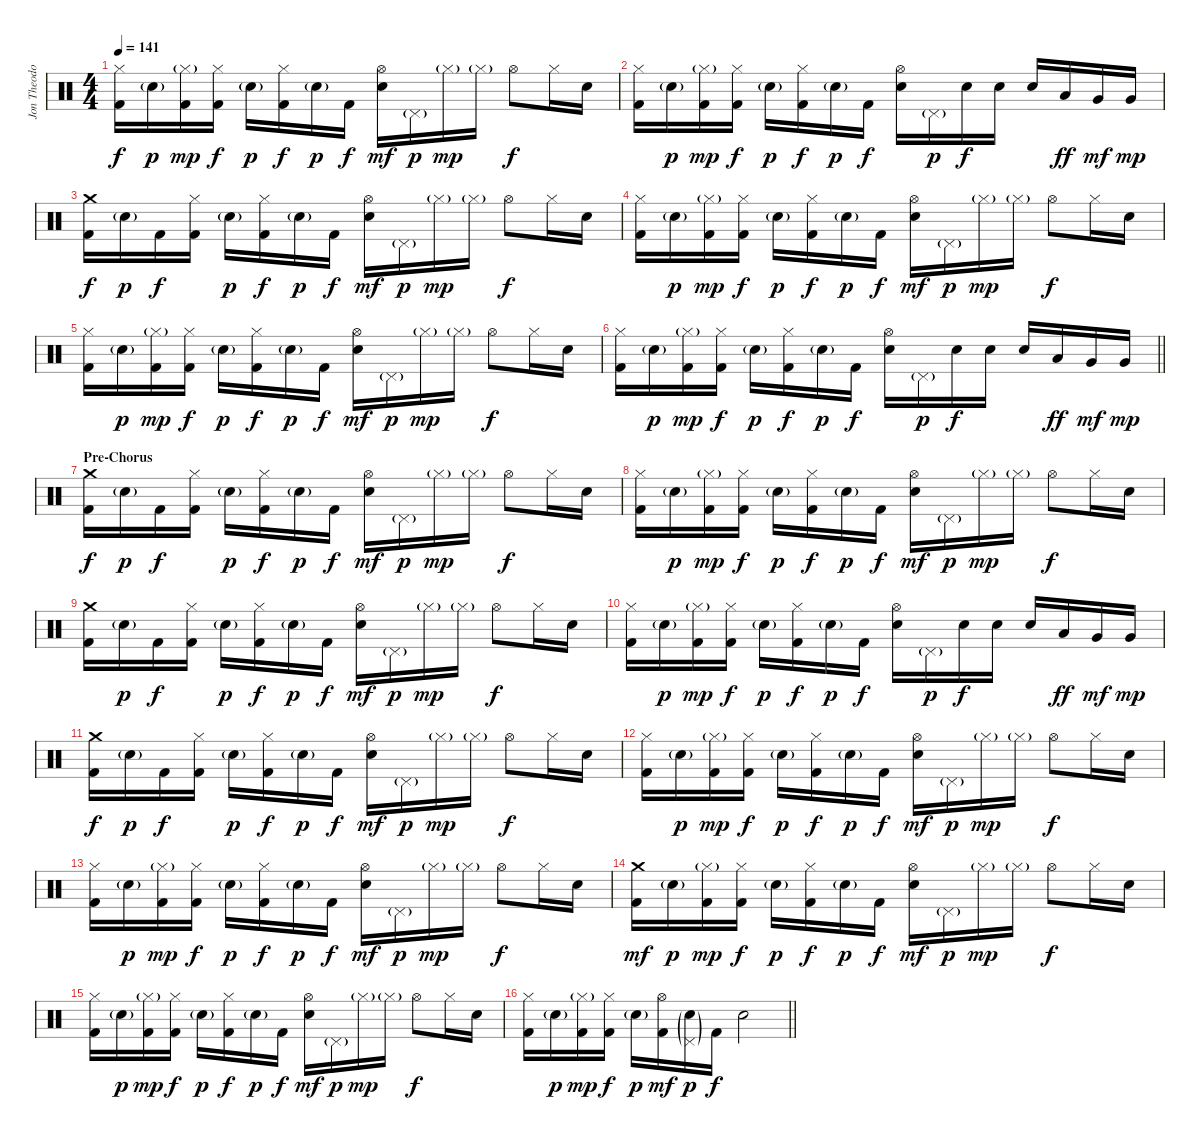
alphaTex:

\track ("Jon Theodore - Drums" "Jon Theodo") {instrument percussion}
\staff {score}
\articulation defaults
\ts (4 4)
\tempo 141
\clef neutral
\ks c
("Hi-Hat (closed)" "Kick (hit) 2").16{dy f} "Electric Snare (hit)"{g}.16{dy p} ("Hi-Hat (closed)"{g} "Kick (hit) 2").16{dy mp} ("Hi-Hat (closed)" "Kick (hit) 2").16{dy f} "Electric Snare (hit)"{g}.16{dy p} ("Hi-Hat (closed)" "Kick (hit) 2").16{dy f} "Electric Snare (hit)"{g}.16{dy p} "Kick (hit) 2".16{dy f} ("Hi-Hat (open)" "Electric Snare (hit)").16{dy mf} "Pedal Hi-Hat (hit)"{g}.16{dy p} "Hi-Hat (closed)"{g}.16{dy mp} "Hi-Hat (closed)"{g}.16 "Hi-Hat (open)".8{dy f} "Hi-Hat (closed)".16 "Electric Snare (hit)".16 |
("Hi-Hat (closed)" "Kick (hit) 2").16 "Electric Snare (hit)"{g}.16{dy p} ("Hi-Hat (closed)"{g} "Kick (hit) 2").16{dy mp} ("Hi-Hat (closed)" "Kick (hit) 2").16{dy f} "Electric Snare (hit)"{g}.16{dy p} ("Hi-Hat (closed)" "Kick (hit) 2").16{dy f} "Electric Snare (hit)"{g}.16{dy p} "Kick (hit) 2".16{dy f} ("Hi-Hat (open)" "Electric Snare (hit)").16 "Pedal Hi-Hat (hit)"{g}.16{dy p} "Electric Snare (hit)".16{dy f} "Electric Snare (hit)".16 "Electric Snare (hit)".16 "Low Tom (hit)".16{dy ff} "Very Low Tom (hit)".16{dy mf} "Very Low Tom (hit)".16{dy mp} |
("Crash medium (hit)" "Kick (hit) 2").16{dy f} "Electric Snare (hit)"{g}.16{dy p} "Kick (hit) 2".16{dy f} ("Hi-Hat (closed)" "Kick (hit) 2").16 "Electric Snare (hit)"{g}.16{dy p} ("Hi-Hat (closed)" "Kick (hit) 2").16{dy f} "Electric Snare (hit)"{g}.16{dy p} "Kick (hit) 2".16{dy f} ("Hi-Hat (open)" "Electric Snare (hit)").16{dy mf} "Pedal Hi-Hat (hit)"{g}.16{dy p} "Hi-Hat (closed)"{g}.16{dy mp} "Hi-Hat (closed)"{g}.16 "Hi-Hat (open)".8{dy f} "Hi-Hat (closed)".16 "Electric Snare (hit)".16 |
("Hi-Hat (closed)" "Kick (hit) 2").16 "Electric Snare (hit)"{g}.16{dy p} ("Hi-Hat (closed)"{g} "Kick (hit) 2").16{dy mp} ("Hi-Hat (closed)" "Kick (hit) 2").16{dy f} "Electric Snare (hit)"{g}.16{dy p} ("Hi-Hat (closed)" "Kick (hit) 2").16{dy f} "Electric Snare (hit)"{g}.16{dy p} "Kick (hit) 2".16{dy f} ("Hi-Hat (open)" "Electric Snare (hit)").16{dy mf} "Pedal Hi-Hat (hit)"{g}.16{dy p} "Hi-Hat (closed)"{g}.16{dy mp} "Hi-Hat (closed)"{g}.16 "Hi-Hat (open)".8{dy f} "Hi-Hat (closed)".16 "Electric Snare (hit)".16 |
("Hi-Hat (closed)" "Kick (hit) 2").16 "Electric Snare (hit)"{g}.16{dy p} ("Hi-Hat (closed)"{g} "Kick (hit) 2").16{dy mp} ("Hi-Hat (closed)" "Kick (hit) 2").16{dy f} "Electric Snare (hit)"{g}.16{dy p} ("Hi-Hat (closed)" "Kick (hit) 2").16{dy f} "Electric Snare (hit)"{g}.16{dy p} "Kick (hit) 2".16{dy f} ("Hi-Hat (open)" "Electric Snare (hit)").16{dy mf} "Pedal Hi-Hat (hit)"{g}.16{dy p} "Hi-Hat (closed)"{g}.16{dy mp} "Hi-Hat (closed)"{g}.16 "Hi-Hat (open)".8{dy f} "Hi-Hat (closed)".16 "Electric Snare (hit)".16 |
\barLineRight lightlight
("Hi-Hat (closed)" "Kick (hit) 2").16 "Electric Snare (hit)"{g}.16{dy p} ("Hi-Hat (closed)"{g} "Kick (hit) 2").16{dy mp} ("Hi-Hat (closed)" "Kick (hit) 2").16{dy f} "Electric Snare (hit)"{g}.16{dy p} ("Hi-Hat (closed)" "Kick (hit) 2").16{dy f} "Electric Snare (hit)"{g}.16{dy p} "Kick (hit) 2".16{dy f} ("Hi-Hat (open)" "Electric Snare (hit)").16 "Pedal Hi-Hat (hit)"{g}.16{dy p} "Electric Snare (hit)".16{dy f} "Electric Snare (hit)".16 "Electric Snare (hit)".16 "Low Tom (hit)".16{dy ff} "Very Low Tom (hit)".16{dy mf} "Very Low Tom (hit)".16{dy mp} |
\section ("" "Pre-Chorus")
("Crash medium (hit)" "Kick (hit) 2").16{dy f} "Electric Snare (hit)"{g}.16{dy p} "Kick (hit) 2".16{dy f} ("Hi-Hat (closed)" "Kick (hit) 2").16 "Electric Snare (hit)"{g}.16{dy p} ("Hi-Hat (closed)" "Kick (hit) 2").16{dy f} "Electric Snare (hit)"{g}.16{dy p} "Kick (hit) 2".16{dy f} ("Hi-Hat (open)" "Electric Snare (hit)").16{dy mf} "Pedal Hi-Hat (hit)"{g}.16{dy p} "Hi-Hat (closed)"{g}.16{dy mp} "Hi-Hat (closed)"{g}.16 "Hi-Hat (open)".8{dy f} "Hi-Hat (closed)".16 "Electric Snare (hit)".16 |
("Hi-Hat (closed)" "Kick (hit) 2").16 "Electric Snare (hit)"{g}.16{dy p} ("Hi-Hat (closed)"{g} "Kick (hit) 2").16{dy mp} ("Hi-Hat (closed)" "Kick (hit) 2").16{dy f} "Electric Snare (hit)"{g}.16{dy p} ("Hi-Hat (closed)" "Kick (hit) 2").16{dy f} "Electric Snare (hit)"{g}.16{dy p} "Kick (hit) 2".16{dy f} ("Hi-Hat (open)" "Electric Snare (hit)").16{dy mf} "Pedal Hi-Hat (hit)"{g}.16{dy p} "Hi-Hat (closed)"{g}.16{dy mp} "Hi-Hat (closed)"{g}.16 "Hi-Hat (open)".8{dy f} "Hi-Hat (closed)".16 "Electric Snare (hit)".16 |
("Crash medium (hit)" "Kick (hit) 2").16 "Electric Snare (hit)"{g}.16{dy p} "Kick (hit) 2".16{dy f} ("Hi-Hat (closed)" "Kick (hit) 2").16 "Electric Snare (hit)"{g}.16{dy p} ("Hi-Hat (closed)" "Kick (hit) 2").16{dy f} "Electric Snare (hit)"{g}.16{dy p} "Kick (hit) 2".16{dy f} ("Hi-Hat (open)" "Electric Snare (hit)").16{dy mf} "Pedal Hi-Hat (hit)"{g}.16{dy p} "Hi-Hat (closed)"{g}.16{dy mp} "Hi-Hat (closed)"{g}.16 "Hi-Hat (open)".8{dy f} "Hi-Hat (closed)".16 "Electric Snare (hit)".16 |
("Hi-Hat (closed)" "Kick (hit) 2").16 "Electric Snare (hit)"{g}.16{dy p} ("Hi-Hat (closed)"{g} "Kick (hit) 2").16{dy mp} ("Hi-Hat (closed)" "Kick (hit) 2").16{dy f} "Electric Snare (hit)"{g}.16{dy p} ("Hi-Hat (closed)" "Kick (hit) 2").16{dy f} "Electric Snare (hit)"{g}.16{dy p} "Kick (hit) 2".16{dy f} ("Hi-Hat (open)" "Electric Snare (hit)").16 "Pedal Hi-Hat (hit)"{g}.16{dy p} "Electric Snare (hit)".16{dy f} "Electric Snare (hit)".16 "Electric Snare (hit)".16 "Low Tom (hit)".16{dy ff} "Very Low Tom (hit)".16{dy mf} "Very Low Tom (hit)".16{dy mp} |
("Crash medium (hit)" "Kick (hit) 2").16{dy f} "Electric Snare (hit)"{g}.16{dy p} "Kick (hit) 2".16{dy f} ("Hi-Hat (closed)" "Kick (hit) 2").16 "Electric Snare (hit)"{g}.16{dy p} ("Hi-Hat (closed)" "Kick (hit) 2").16{dy f} "Electric Snare (hit)"{g}.16{dy p} "Kick (hit) 2".16{dy f} ("Hi-Hat (open)" "Electric Snare (hit)").16{dy mf} "Pedal Hi-Hat (hit)"{g}.16{dy p} "Hi-Hat (closed)"{g}.16{dy mp} "Hi-Hat (closed)"{g}.16 "Hi-Hat (open)".8{dy f} "Hi-Hat (closed)".16 "Electric Snare (hit)".16 |
("Hi-Hat (closed)" "Kick (hit) 2").16 "Electric Snare (hit)"{g}.16{dy p} ("Hi-Hat (closed)"{g} "Kick (hit) 2").16{dy mp} ("Hi-Hat (closed)" "Kick (hit) 2").16{dy f} "Electric Snare (hit)"{g}.16{dy p} ("Hi-Hat (closed)" "Kick (hit) 2").16{dy f} "Electric Snare (hit)"{g}.16{dy p} "Kick (hit) 2".16{dy f} ("Hi-Hat (open)" "Electric Snare (hit)").16{dy mf} "Pedal Hi-Hat (hit)"{g}.16{dy p} "Hi-Hat (closed)"{g}.16{dy mp} "Hi-Hat (closed)"{g}.16 "Hi-Hat (open)".8{dy f} "Hi-Hat (closed)".16 "Electric Snare (hit)".16 |
("Hi-Hat (closed)" "Kick (hit) 2").16 "Electric Snare (hit)"{g}.16{dy p} ("Hi-Hat (closed)"{g} "Kick (hit) 2").16{dy mp} ("Hi-Hat (closed)" "Kick (hit) 2").16{dy f} "Electric Snare (hit)"{g}.16{dy p} ("Hi-Hat (closed)" "Kick (hit) 2").16{dy f} "Electric Snare (hit)"{g}.16{dy p} "Kick (hit) 2".16{dy f} ("Hi-Hat (open)" "Electric Snare (hit)").16{dy mf} "Pedal Hi-Hat (hit)"{g}.16{dy p} "Hi-Hat (closed)"{g}.16{dy mp} "Hi-Hat (closed)"{g}.16 "Hi-Hat (open)".8{dy f} "Hi-Hat (closed)".16 "Electric Snare (hit)".16 |
("Crash medium (hit)" "Kick (hit) 2").16{dy mf} "Electric Snare (hit)"{g}.16{dy p} ("Hi-Hat (closed)"{g} "Kick (hit) 2").16{dy mp} ("Hi-Hat (closed)" "Kick (hit) 2").16{dy f} "Electric Snare (hit)"{g}.16{dy p} ("Hi-Hat (closed)" "Kick (hit) 2").16{dy f} "Electric Snare (hit)"{g}.16{dy p} "Kick (hit) 2".16{dy f} ("Hi-Hat (open)" "Electric Snare (hit)").16{dy mf} "Pedal Hi-Hat (hit)"{g}.16{dy p} "Hi-Hat (closed)"{g}.16{dy mp} "Hi-Hat (closed)"{g}.16 "Hi-Hat (open)".8{dy f} "Hi-Hat (closed)".16 "Electric Snare (hit)".16 |
("Hi-Hat (closed)" "Kick (hit) 2").16 "Electric Snare (hit)"{g}.16{dy p} ("Hi-Hat (closed)"{g} "Kick (hit) 2").16{dy mp} ("Hi-Hat (closed)" "Kick (hit) 2").16{dy f} "Electric Snare (hit)"{g}.16{dy p} ("Hi-Hat (closed)" "Kick (hit) 2").16{dy f} "Electric Snare (hit)"{g}.16{dy p} "Kick (hit) 2".16{dy f} ("Hi-Hat (open)" "Electric Snare (hit)").16{dy mf} "Pedal Hi-Hat (hit)"{g}.16{dy p} "Hi-Hat (closed)"{g}.16{dy mp} "Hi-Hat (closed)"{g}.16 "Hi-Hat (open)".8{dy f} "Hi-Hat (closed)".16 "Electric Snare (hit)".16 |
\barLineRight lightlight
("Hi-Hat (closed)" "Kick (hit) 2").16 "Electric Snare (hit)"{g}.16{dy p} ("Hi-Hat (closed)"{g} "Kick (hit) 2").16{dy mp} ("Hi-Hat (closed)" "Kick (hit) 2").16{dy f} "Electric Snare (hit)"{g}.16{dy p} ("Hi-Hat (open)" "Kick (hit) 2").16{dy mf} ("Electric Snare (hit)"{g} "Pedal Hi-Hat (hit)"{g}).16{dy p} "Kick (hit) 2".16{dy f} "Electric Snare (hit)".2
